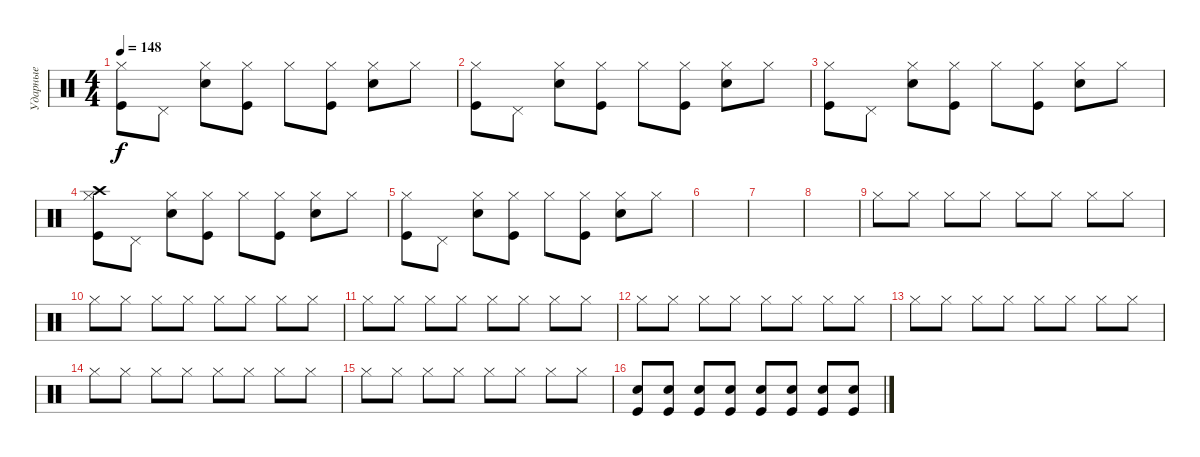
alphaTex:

\track ("Ударные" "Ударные") {instrument percussion}
\staff {score}
\articulation defaults
\ts (4 4)
\tempo 148
\clef neutral
\ks c
("Hi-Hat (closed)" "Kick (hit)").8{dy f} "Pedal Hi-Hat (hit)".8 ("Hi-Hat (closed)" "Snare (hit) 2").8 ("Hi-Hat (closed)" "Kick (hit)").8 "Hi-Hat (closed)".8 ("Hi-Hat (closed)" "Kick (hit)").8 ("Hi-Hat (closed)" "Snare (hit) 2").8 "Hi-Hat (closed)".8 |
("Hi-Hat (closed)" "Kick (hit)").8 "Pedal Hi-Hat (hit)".8 ("Hi-Hat (closed)" "Snare (hit) 2").8 ("Hi-Hat (closed)" "Kick (hit)").8 "Hi-Hat (closed)".8 ("Hi-Hat (closed)" "Kick (hit)").8 ("Hi-Hat (closed)" "Snare (hit) 2").8 "Hi-Hat (closed)".8 |
("Hi-Hat (closed)" "Kick (hit)").8 "Pedal Hi-Hat (hit)".8 ("Hi-Hat (closed)" "Snare (hit) 2").8 ("Hi-Hat (closed)" "Kick (hit)").8 "Hi-Hat (closed)".8 ("Hi-Hat (closed)" "Kick (hit)").8 ("Hi-Hat (closed)" "Snare (hit) 2").8 "Hi-Hat (closed)".8 |
("Hi-Hat (closed)" "Crash high (hit)" "Kick (hit)").8 "Pedal Hi-Hat (hit)".8 ("Hi-Hat (closed)" "Snare (hit) 2").8 ("Hi-Hat (closed)" "Kick (hit)").8 "Hi-Hat (closed)".8 ("Hi-Hat (closed)" "Kick (hit)").8 ("Hi-Hat (closed)" "Snare (hit) 2").8 "Hi-Hat (closed)".8 |
("Hi-Hat (closed)" "Kick (hit)").8 "Pedal Hi-Hat (hit)".8 ("Hi-Hat (closed)" "Snare (hit) 2").8 ("Hi-Hat (closed)" "Kick (hit)").8 "Hi-Hat (closed)".8 ("Hi-Hat (closed)" "Kick (hit)").8 ("Hi-Hat (closed)" "Snare (hit) 2").8 "Hi-Hat (closed)".8 |
|
|
|
"Hi-Hat (closed)".8 "Hi-Hat (closed)".8 "Hi-Hat (closed)".8 "Hi-Hat (closed)".8 "Hi-Hat (closed)".8 "Hi-Hat (closed)".8 "Hi-Hat (closed)".8 "Hi-Hat (closed)".8 |
"Hi-Hat (closed)".8 "Hi-Hat (closed)".8 "Hi-Hat (closed)".8 "Hi-Hat (closed)".8 "Hi-Hat (closed)".8 "Hi-Hat (closed)".8 "Hi-Hat (closed)".8 "Hi-Hat (closed)".8 |
"Hi-Hat (closed)".8 "Hi-Hat (closed)".8 "Hi-Hat (closed)".8 "Hi-Hat (closed)".8 "Hi-Hat (closed)".8 "Hi-Hat (closed)".8 "Hi-Hat (closed)".8 "Hi-Hat (closed)".8 |
"Hi-Hat (closed)".8 "Hi-Hat (closed)".8 "Hi-Hat (closed)".8 "Hi-Hat (closed)".8 "Hi-Hat (closed)".8 "Hi-Hat (closed)".8 "Hi-Hat (closed)".8 "Hi-Hat (closed)".8 |
"Hi-Hat (closed)".8 "Hi-Hat (closed)".8 "Hi-Hat (closed)".8 "Hi-Hat (closed)".8 "Hi-Hat (closed)".8 "Hi-Hat (closed)".8 "Hi-Hat (closed)".8 "Hi-Hat (closed)".8 |
"Hi-Hat (closed)".8 "Hi-Hat (closed)".8 "Hi-Hat (closed)".8 "Hi-Hat (closed)".8 "Hi-Hat (closed)".8 "Hi-Hat (closed)".8 "Hi-Hat (closed)".8 "Hi-Hat (closed)".8 |
"Hi-Hat (closed)".8 "Hi-Hat (closed)".8 "Hi-Hat (closed)".8 "Hi-Hat (closed)".8 "Hi-Hat (closed)".8 "Hi-Hat (closed)".8 "Hi-Hat (closed)".8 "Hi-Hat (closed)".8 |
("Snare (hit) 2" "Kick (hit)").8 ("Snare (hit) 2" "Kick (hit)").8 ("Snare (hit) 2" "Kick (hit)").8 ("Snare (hit) 2" "Kick (hit)").8 ("Snare (hit) 2" "Kick (hit)").8 ("Snare (hit) 2" "Kick (hit)").8 ("Snare (hit) 2" "Kick (hit)").8 ("Snare (hit) 2" "Kick (hit)").8
